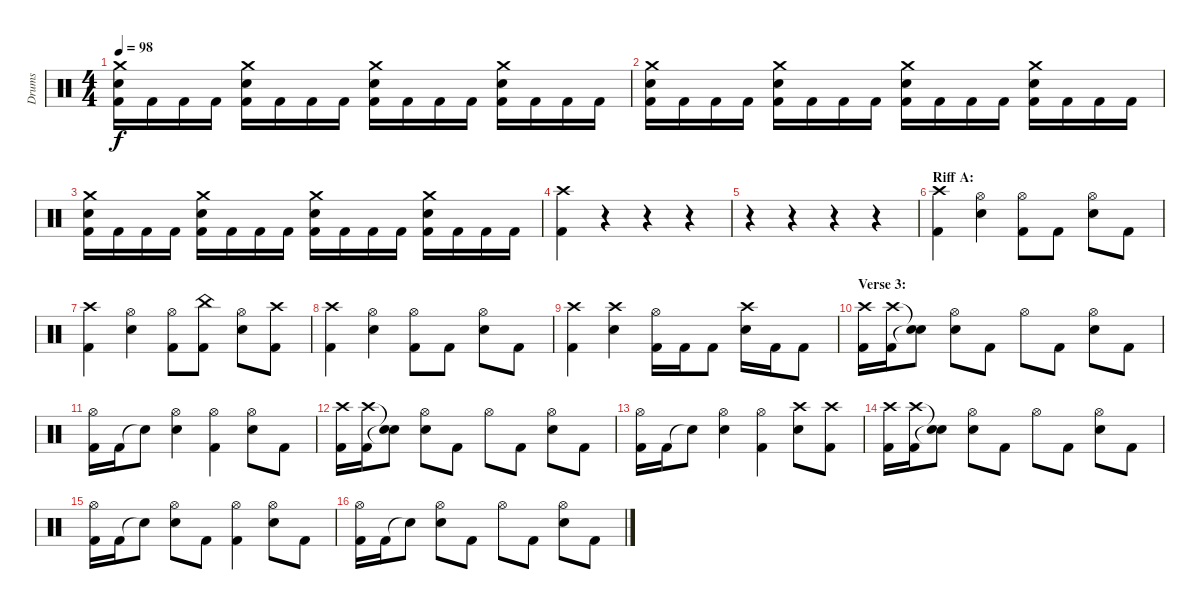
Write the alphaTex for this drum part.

\track ("Drums" "Drums") {instrument percussion}
\staff {score}
\articulation defaults
\ts (4 4)
\tempo 98
\clef neutral
\ks c
("Crash medium (hit)" "Electric Snare (hit)" "Kick (hit) 2").16{dy f} "Kick (hit) 2".16 "Kick (hit) 2".16 "Kick (hit) 2".16 ("Crash medium (hit)" "Electric Snare (hit)" "Kick (hit) 2").16 "Kick (hit) 2".16 "Kick (hit) 2".16 "Kick (hit) 2".16 ("Crash medium (hit)" "Electric Snare (hit)" "Kick (hit) 2").16 "Kick (hit) 2".16 "Kick (hit) 2".16 "Kick (hit) 2".16 ("Crash medium (hit)" "Electric Snare (hit)" "Kick (hit) 2").16 "Kick (hit) 2".16 "Kick (hit) 2".16 "Kick (hit) 2".16 |
("Crash medium (hit)" "Electric Snare (hit)" "Kick (hit) 2").16 "Kick (hit) 2".16 "Kick (hit) 2".16 "Kick (hit) 2".16 ("Crash medium (hit)" "Electric Snare (hit)" "Kick (hit) 2").16 "Kick (hit) 2".16 "Kick (hit) 2".16 "Kick (hit) 2".16 ("Crash medium (hit)" "Electric Snare (hit)" "Kick (hit) 2").16 "Kick (hit) 2".16 "Kick (hit) 2".16 "Kick (hit) 2".16 ("Crash medium (hit)" "Electric Snare (hit)" "Kick (hit) 2").16 "Kick (hit) 2".16 "Kick (hit) 2".16 "Kick (hit) 2".16 |
("Crash medium (hit)" "Electric Snare (hit)" "Kick (hit) 2").16 "Kick (hit) 2".16 "Kick (hit) 2".16 "Kick (hit) 2".16 ("Crash medium (hit)" "Electric Snare (hit)" "Kick (hit) 2").16 "Kick (hit) 2".16 "Kick (hit) 2".16 "Kick (hit) 2".16 ("Crash medium (hit)" "Electric Snare (hit)" "Kick (hit) 2").16 "Kick (hit) 2".16 "Kick (hit) 2".16 "Kick (hit) 2".16 ("Crash medium (hit)" "Electric Snare (hit)" "Kick (hit) 2").16 "Kick (hit) 2".16 "Kick (hit) 2".16 "Kick (hit) 2".16 |
("Crash high (hit)" "Kick (hit) 2").4 r.4 r.4 r.4 |
r.4 r.4 r.4 r.4 |
\section ("" "Riff A:")
("Crash high (hit)" "Kick (hit) 2").4 ("Hi-Hat (open)" "Electric Snare (hit)").4 ("Hi-Hat (open)" "Kick (hit) 2").8 "Kick (hit) 2".8 ("Hi-Hat (open)" "Electric Snare (hit)").8 "Kick (hit) 2".8 |
("Crash high (hit)" "Kick (hit) 2").4 ("Hi-Hat (open)" "Electric Snare (hit)").4 ("Hi-Hat (open)" "Kick (hit) 2").8 ("China (hit)" "Kick (hit) 2").8 ("Hi-Hat (open)" "Electric Snare (hit)").8 ("Crash high (hit)" "Kick (hit) 2").8 |
("Crash high (hit)" "Kick (hit) 2").4 ("Hi-Hat (open)" "Electric Snare (hit)").4 ("Hi-Hat (open)" "Kick (hit) 2").8 "Kick (hit) 2".8 ("Hi-Hat (open)" "Electric Snare (hit)").8 "Kick (hit) 2".8 |
("Crash high (hit)" "Kick (hit) 2").4 ("Crash high (hit)" "Electric Snare (hit)").4 ("Hi-Hat (open)" "Kick (hit) 2").16 "Kick (hit) 2".16 "Kick (hit) 2".8 ("Crash high (hit)" "Electric Snare (hit)").16 "Kick (hit) 2".16 "Kick (hit) 2".8 |
\section ("" "Verse 3:")
("Crash high (hit)" "Kick (hit) 2").16 ("Crash high (hit)" "Kick (hit) 2").16 ("Snare (hit)"{t} "Snare (hit)"{t}).8 ("Hi-Hat (open)" "Electric Snare (hit)").8 "Kick (hit) 2".8 "Hi-Hat (open)".8 "Kick (hit) 2".8 ("Hi-Hat (open)" "Electric Snare (hit)").8 "Kick (hit) 2".8 |
("Hi-Hat (open)" "Kick (hit) 2").16 "Kick (hit) 2".16 "Snare (hit)"{t}.8 ("Hi-Hat (open)" "Electric Snare (hit)").4 ("Hi-Hat (open)" "Kick (hit) 2").4 ("Hi-Hat (open)" "Electric Snare (hit)").8 "Kick (hit) 2".8 |
("Crash high (hit)" "Kick (hit) 2").16 ("Crash high (hit)" "Kick (hit) 2").16 ("Snare (hit)"{t} "Snare (hit)"{t}).8 ("Hi-Hat (open)" "Electric Snare (hit)").8 "Kick (hit) 2".8 "Hi-Hat (open)".8 "Kick (hit) 2".8 ("Hi-Hat (open)" "Electric Snare (hit)").8 "Kick (hit) 2".8 |
("Hi-Hat (open)" "Kick (hit) 2").16 "Kick (hit) 2".16 "Snare (hit)"{t}.8 ("Hi-Hat (open)" "Electric Snare (hit)").4 ("Hi-Hat (open)" "Kick (hit) 2").4 ("Crash high (hit)" "Electric Snare (hit)").8 ("Crash high (hit)" "Kick (hit) 2").8 |
("Crash high (hit)" "Kick (hit) 2").16 ("Crash high (hit)" "Kick (hit) 2").16 ("Snare (hit)"{t} "Snare (hit)"{t}).8 ("Hi-Hat (open)" "Electric Snare (hit)").8 "Kick (hit) 2".8 "Hi-Hat (open)".8 "Kick (hit) 2".8 ("Hi-Hat (open)" "Electric Snare (hit)").8 "Kick (hit) 2".8 |
("Hi-Hat (open)" "Kick (hit) 2").16 "Kick (hit) 2".16 "Snare (hit)"{t}.8 ("Hi-Hat (open)" "Electric Snare (hit)").8 "Kick (hit) 2".8 ("Hi-Hat (open)" "Kick (hit) 2").4 ("Hi-Hat (open)" "Electric Snare (hit)").8 "Kick (hit) 2".8 |
("Hi-Hat (open)" "Kick (hit) 2").16 "Kick (hit) 2".16 "Snare (hit)"{t}.8 ("Hi-Hat (open)" "Electric Snare (hit)").8 "Kick (hit) 2".8 "Hi-Hat (open)".8 "Kick (hit) 2".8 ("Hi-Hat (open)" "Electric Snare (hit)").8 "Kick (hit) 2".8
